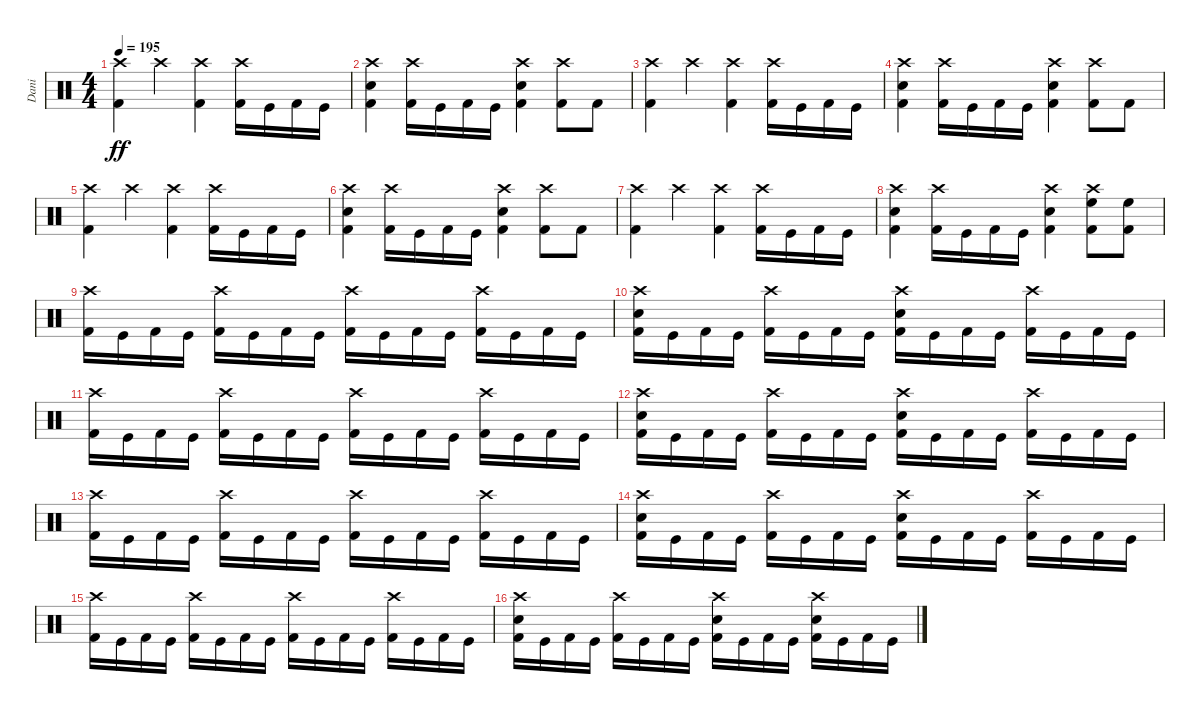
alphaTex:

\track ("Dani" "Dani") {instrument percussion}
\staff {score}
\articulation defaults
\ts (4 4)
\tempo 195
\clef neutral
\ks c
("Crash high (hit)" "Kick (hit) 2").4{dy ff} "Crash high (hit)".4 ("Crash high (hit)" "Kick (hit) 2").4 ("Crash high (hit)" "Kick (hit) 2").16 "Kick (hit)".16 "Kick (hit) 2".16 "Kick (hit)".16 |
("Crash high (hit)" "Electric Snare (hit)" "Kick (hit) 2").4 ("Crash high (hit)" "Kick (hit) 2").16 "Kick (hit)".16 "Kick (hit) 2".16 "Kick (hit)".16 ("Crash high (hit)" "Electric Snare (hit)" "Kick (hit) 2").4 ("Crash high (hit)" "Kick (hit) 2").8 "Kick (hit) 2".8 |
("Crash high (hit)" "Kick (hit) 2").4 "Crash high (hit)".4 ("Crash high (hit)" "Kick (hit) 2").4 ("Crash high (hit)" "Kick (hit) 2").16 "Kick (hit)".16 "Kick (hit) 2".16 "Kick (hit)".16 |
("Crash high (hit)" "Electric Snare (hit)" "Kick (hit) 2").4 ("Crash high (hit)" "Kick (hit) 2").16 "Kick (hit)".16 "Kick (hit) 2".16 "Kick (hit)".16 ("Crash high (hit)" "Electric Snare (hit)" "Kick (hit) 2").4 ("Crash high (hit)" "Kick (hit) 2").8 "Kick (hit) 2".8 |
("Crash high (hit)" "Kick (hit) 2").4 "Crash high (hit)".4 ("Crash high (hit)" "Kick (hit) 2").4 ("Crash high (hit)" "Kick (hit) 2").16 "Kick (hit)".16 "Kick (hit) 2".16 "Kick (hit)".16 |
("Crash high (hit)" "Electric Snare (hit)" "Kick (hit) 2").4 ("Crash high (hit)" "Kick (hit) 2").16 "Kick (hit)".16 "Kick (hit) 2".16 "Kick (hit)".16 ("Crash high (hit)" "Electric Snare (hit)" "Kick (hit) 2").4 ("Crash high (hit)" "Kick (hit) 2").8 "Kick (hit) 2".8 |
("Crash high (hit)" "Kick (hit) 2").4 "Crash high (hit)".4 ("Crash high (hit)" "Kick (hit) 2").4 ("Crash high (hit)" "Kick (hit) 2").16 "Kick (hit)".16 "Kick (hit) 2".16 "Kick (hit)".16 |
("Crash high (hit)" "Electric Snare (hit)" "Kick (hit) 2").4 ("Crash high (hit)" "Kick (hit) 2").16 "Kick (hit)".16 "Kick (hit) 2".16 "Kick (hit)".16 ("Crash high (hit)" "Electric Snare (hit)" "Kick (hit) 2").4 ("Crash high (hit)" "High Floor Tom (hit)" "Kick (hit) 2").8 ("High Floor Tom (hit)" "Kick (hit) 2").8 |
("Crash high (hit)" "Kick (hit) 2").16 "Kick (hit)".16 "Kick (hit) 2".16 "Kick (hit)".16 ("Crash high (hit)" "Kick (hit) 2").16 "Kick (hit)".16 "Kick (hit) 2".16 "Kick (hit)".16 ("Crash high (hit)" "Kick (hit) 2").16 "Kick (hit)".16 "Kick (hit) 2".16 "Kick (hit)".16 ("Crash high (hit)" "Kick (hit) 2").16 "Kick (hit)".16 "Kick (hit) 2".16 "Kick (hit)".16 |
("Crash high (hit)" "Electric Snare (hit)" "Kick (hit) 2").16 "Kick (hit)".16 "Kick (hit) 2".16 "Kick (hit)".16 ("Crash high (hit)" "Kick (hit) 2").16 "Kick (hit)".16 "Kick (hit) 2".16 "Kick (hit)".16 ("Crash high (hit)" "Electric Snare (hit)" "Kick (hit) 2").16 "Kick (hit)".16 "Kick (hit) 2".16 "Kick (hit)".16 ("Crash high (hit)" "Kick (hit) 2").16 "Kick (hit)".16 "Kick (hit) 2".16 "Kick (hit)".16 |
("Crash high (hit)" "Kick (hit) 2").16 "Kick (hit)".16 "Kick (hit) 2".16 "Kick (hit)".16 ("Crash high (hit)" "Kick (hit) 2").16 "Kick (hit)".16 "Kick (hit) 2".16 "Kick (hit)".16 ("Crash high (hit)" "Kick (hit) 2").16 "Kick (hit)".16 "Kick (hit) 2".16 "Kick (hit)".16 ("Crash high (hit)" "Kick (hit) 2").16 "Kick (hit)".16 "Kick (hit) 2".16 "Kick (hit)".16 |
("Crash high (hit)" "Electric Snare (hit)" "Kick (hit) 2").16 "Kick (hit)".16 "Kick (hit) 2".16 "Kick (hit)".16 ("Crash high (hit)" "Kick (hit) 2").16 "Kick (hit)".16 "Kick (hit) 2".16 "Kick (hit)".16 ("Crash high (hit)" "Electric Snare (hit)" "Kick (hit) 2").16 "Kick (hit)".16 "Kick (hit) 2".16 "Kick (hit)".16 ("Crash high (hit)" "Kick (hit) 2").16 "Kick (hit)".16 "Kick (hit) 2".16 "Kick (hit)".16 |
("Crash high (hit)" "Kick (hit) 2").16 "Kick (hit)".16 "Kick (hit) 2".16 "Kick (hit)".16 ("Crash high (hit)" "Kick (hit) 2").16 "Kick (hit)".16 "Kick (hit) 2".16 "Kick (hit)".16 ("Crash high (hit)" "Kick (hit) 2").16 "Kick (hit)".16 "Kick (hit) 2".16 "Kick (hit)".16 ("Crash high (hit)" "Kick (hit) 2").16 "Kick (hit)".16 "Kick (hit) 2".16 "Kick (hit)".16 |
("Crash high (hit)" "Electric Snare (hit)" "Kick (hit) 2").16 "Kick (hit)".16 "Kick (hit) 2".16 "Kick (hit)".16 ("Crash high (hit)" "Kick (hit) 2").16 "Kick (hit)".16 "Kick (hit) 2".16 "Kick (hit)".16 ("Crash high (hit)" "Electric Snare (hit)" "Kick (hit) 2").16 "Kick (hit)".16 "Kick (hit) 2".16 "Kick (hit)".16 ("Crash high (hit)" "Kick (hit) 2").16 "Kick (hit)".16 "Kick (hit) 2".16 "Kick (hit)".16 |
("Crash high (hit)" "Kick (hit) 2").16 "Kick (hit)".16 "Kick (hit) 2".16 "Kick (hit)".16 ("Crash high (hit)" "Kick (hit) 2").16 "Kick (hit)".16 "Kick (hit) 2".16 "Kick (hit)".16 ("Crash high (hit)" "Kick (hit) 2").16 "Kick (hit)".16 "Kick (hit) 2".16 "Kick (hit)".16 ("Crash high (hit)" "Kick (hit) 2").16 "Kick (hit)".16 "Kick (hit) 2".16 "Kick (hit)".16 |
("Crash high (hit)" "Electric Snare (hit)" "Kick (hit) 2").16 "Kick (hit)".16 "Kick (hit) 2".16 "Kick (hit)".16 ("Crash high (hit)" "Kick (hit) 2").16 "Kick (hit)".16 "Kick (hit) 2".16 "Kick (hit)".16 ("Crash high (hit)" "Electric Snare (hit)" "Kick (hit) 2").16 "Kick (hit)".16 "Kick (hit) 2".16 "Kick (hit)".16 ("Crash high (hit)" "Electric Snare (hit)" "Kick (hit) 2").16 "Kick (hit)".16 "Kick (hit) 2".16 "Kick (hit)".16
